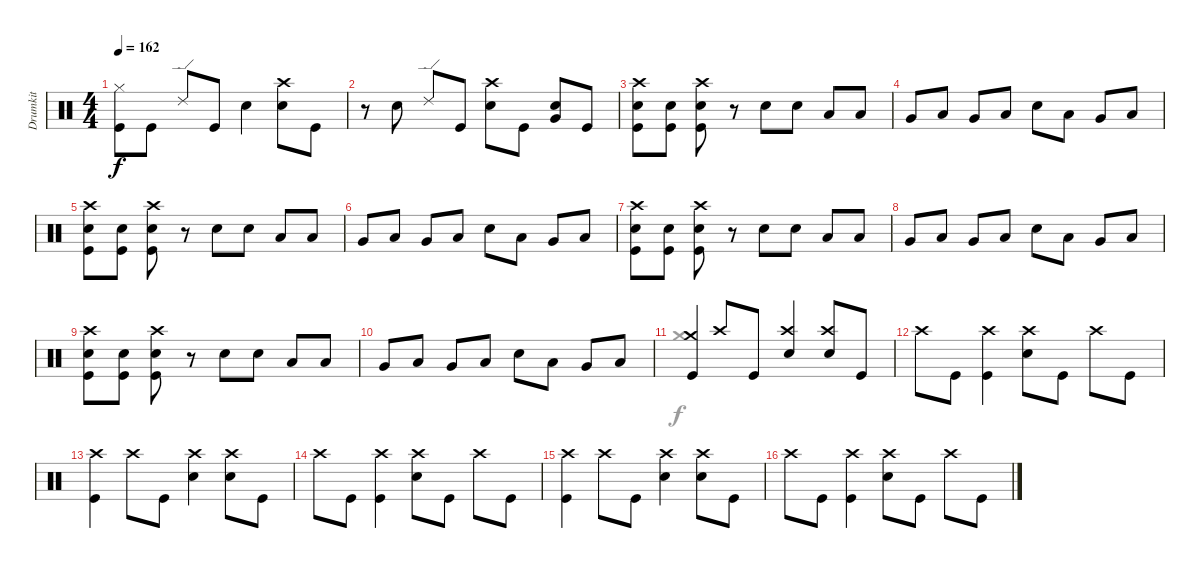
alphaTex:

\track ("Drumkit" "Drumkit") {instrument percussion}
\staff {score}
\articulation defaults
\voice
\ts (4 4)
\tempo 162
\clef neutral
\ks c
("Kick (hit)" "Hi-Hat (closed)").8{dy f} "Kick (hit)".8 "Ride (edge) 2".8 "Kick (hit)".8 "Snare (hit) 2".4 ("Snare (hit) 2" "Crash high (hit)").8 "Kick (hit)".8 |
r.8 "Snare (hit) 2".8 "Ride (edge) 2".8 "Kick (hit)".8 ("Snare (hit) 2" "Crash high (hit)").8 "Kick (hit)".8 ("Snare (hit) 2" "Very Low Tom (hit)").8 "Kick (hit)".8 |
("Kick (hit)" "Snare (hit) 2" "Crash high (hit)").8 ("Kick (hit)" "Snare (hit) 2").8 ("Kick (hit)" "Snare (hit) 2" "Crash high (hit)").8 r.8 "Snare (hit) 2".8 "Snare (hit) 2".8 "Low Floor Tom (hit)".8 "Low Floor Tom (hit)".8 |
"Very Low Tom (hit)".8 "Low Tom (hit)".8 "Very Low Tom (hit)".8 "Low Floor Tom (hit)".8 "Snare (hit) 2".8 "Low Tom (hit)".8 "Very Low Tom (hit)".8 "Low Floor Tom (hit)".8 |
("Kick (hit)" "Snare (hit) 2" "Crash high (hit)").8 ("Kick (hit)" "Snare (hit) 2").8 ("Kick (hit)" "Snare (hit) 2" "Crash high (hit)").8 r.8 "Snare (hit) 2".8 "Snare (hit) 2".8 "Low Floor Tom (hit)".8 "Low Floor Tom (hit)".8 |
"Very Low Tom (hit)".8 "Low Tom (hit)".8 "Very Low Tom (hit)".8 "Low Floor Tom (hit)".8 "Snare (hit) 2".8 "Low Tom (hit)".8 "Very Low Tom (hit)".8 "Low Floor Tom (hit)".8 |
("Kick (hit)" "Snare (hit) 2" "Crash high (hit)").8 ("Kick (hit)" "Snare (hit) 2").8 ("Kick (hit)" "Snare (hit) 2" "Crash high (hit)").8 r.8 "Snare (hit) 2".8 "Snare (hit) 2".8 "Low Floor Tom (hit)".8 "Low Floor Tom (hit)".8 |
"Very Low Tom (hit)".8 "Low Tom (hit)".8 "Very Low Tom (hit)".8 "Low Floor Tom (hit)".8 "Snare (hit) 2".8 "Low Tom (hit)".8 "Very Low Tom (hit)".8 "Low Floor Tom (hit)".8 |
("Kick (hit)" "Snare (hit) 2" "Crash high (hit)").8 ("Kick (hit)" "Snare (hit) 2").8 ("Kick (hit)" "Snare (hit) 2" "Crash high (hit)").8 r.8 "Snare (hit) 2".8 "Snare (hit) 2".8 "Low Floor Tom (hit)".8 "Low Floor Tom (hit)".8 |
"Very Low Tom (hit)".8 "Low Tom (hit)".8 "Very Low Tom (hit)".8 "Low Floor Tom (hit)".8 "Snare (hit) 2".8 "Low Tom (hit)".8 "Very Low Tom (hit)".8 "Low Floor Tom (hit)".8 |
("Kick (hit)" "Crash medium (hit)").4 "Crash high (hit)".8 "Kick (hit)".8 ("Snare (hit) 2" "Crash high (hit)").4 ("Snare (hit) 2" "Crash high (hit)").8 "Kick (hit)".8 |
"Crash high (hit)".8 "Kick (hit)".8 ("Kick (hit)" "Crash high (hit)").4 ("Snare (hit) 2" "Crash high (hit)").8 "Kick (hit)".8 "Crash high (hit)".8 "Kick (hit)".8 |
("Kick (hit)" "Crash high (hit)").4 "Crash high (hit)".8 "Kick (hit)".8 ("Snare (hit) 2" "Crash high (hit)").4 ("Snare (hit) 2" "Crash high (hit)").8 "Kick (hit)".8 |
"Crash high (hit)".8 "Kick (hit)".8 ("Kick (hit)" "Crash high (hit)").4 ("Snare (hit) 2" "Crash high (hit)").8 "Kick (hit)".8 "Crash high (hit)".8 "Kick (hit)".8 |
("Kick (hit)" "Crash high (hit)").4 "Crash high (hit)".8 "Kick (hit)".8 ("Snare (hit) 2" "Crash high (hit)").4 ("Snare (hit) 2" "Crash high (hit)").8 "Kick (hit)".8 |
"Crash high (hit)".8 "Kick (hit)".8 ("Kick (hit)" "Crash high (hit)").4 ("Snare (hit) 2" "Crash high (hit)").8 "Kick (hit)".8 "Crash high (hit)".8 "Kick (hit)".8
\voice
\clef neutral
\ottava regular
\simile none
\ks c
|
|
|
|
|
|
|
|
|
|
"Crash medium (hit)".1 |
|
|
|
|
